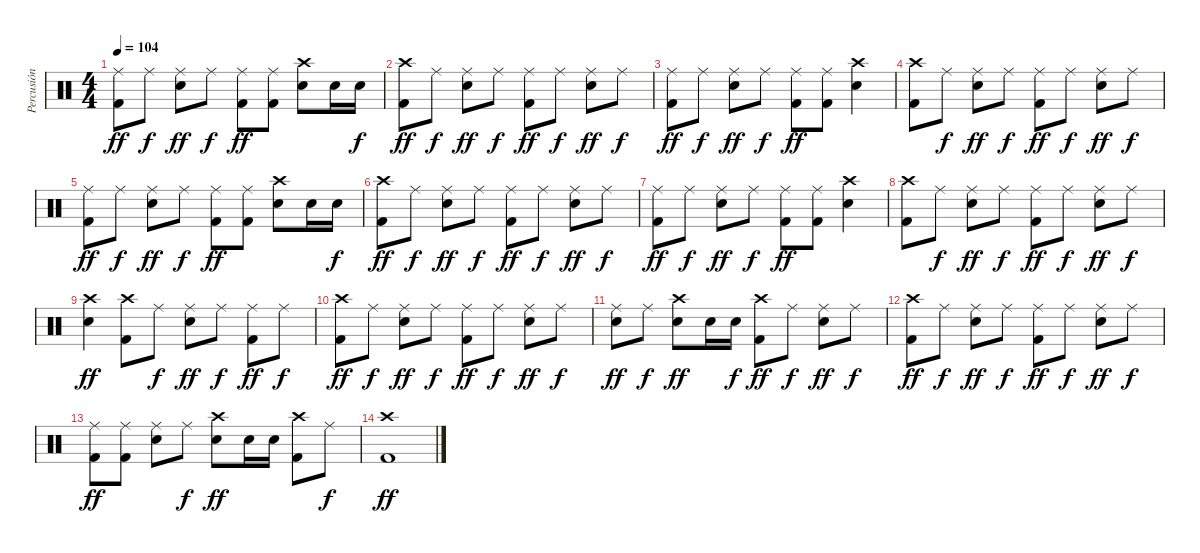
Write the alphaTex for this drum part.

\track ("Percusión" "Percusión") {instrument percussion}
\staff {score}
\articulation defaults
\ts (4 4)
\tempo 104
\clef neutral
\ks c
("Ride (middle)" "Kick (hit) 2").8{dy ff} "Ride (middle)".8{dy f} ("Ride (middle)" "Snare (hit) 2").8{dy ff} "Ride (middle)".8{dy f} ("Ride (middle)" "Kick (hit) 2").8{dy ff} ("Ride (middle)" "Kick (hit) 2").8 ("Crash high (hit)" "Snare (hit) 2").8 "Snare (hit) 2".16 "Snare (hit) 2".16{dy f} |
("Crash high (hit)" "Kick (hit) 2").8{dy ff} "Ride (middle)".8{dy f} ("Ride (middle)" "Snare (hit) 2").8{dy ff} "Ride (middle)".8{dy f} ("Ride (middle)" "Kick (hit) 2").8{dy ff} "Ride (middle)".8{dy f} ("Ride (middle)" "Snare (hit) 2").8{dy ff} "Ride (middle)".8{dy f} |
("Ride (middle)" "Kick (hit) 2").8{dy ff} "Ride (middle)".8{dy f} ("Ride (middle)" "Snare (hit) 2").8{dy ff} "Ride (middle)".8{dy f} ("Ride (middle)" "Kick (hit) 2").8{dy ff} ("Ride (middle)" "Kick (hit) 2").8 ("Crash high (hit)" "Snare (hit) 2").4 |
("Crash high (hit)" "Kick (hit) 2").8 "Ride (middle)".8{dy f} ("Ride (middle)" "Snare (hit) 2").8{dy ff} "Ride (middle)".8{dy f} ("Ride (middle)" "Kick (hit) 2").8{dy ff} "Ride (middle)".8{dy f} ("Ride (middle)" "Snare (hit) 2").8{dy ff} "Ride (middle)".8{dy f} |
("Ride (middle)" "Kick (hit) 2").8{dy ff} "Ride (middle)".8{dy f} ("Ride (middle)" "Snare (hit) 2").8{dy ff} "Ride (middle)".8{dy f} ("Ride (middle)" "Kick (hit) 2").8{dy ff} ("Ride (middle)" "Kick (hit) 2").8 ("Crash high (hit)" "Snare (hit) 2").8 "Snare (hit) 2".16 "Snare (hit) 2".16{dy f} |
("Crash high (hit)" "Kick (hit) 2").8{dy ff} "Ride (middle)".8{dy f} ("Ride (middle)" "Snare (hit) 2").8{dy ff} "Ride (middle)".8{dy f} ("Ride (middle)" "Kick (hit) 2").8{dy ff} "Ride (middle)".8{dy f} ("Ride (middle)" "Snare (hit) 2").8{dy ff} "Ride (middle)".8{dy f} |
("Ride (middle)" "Kick (hit) 2").8{dy ff} "Ride (middle)".8{dy f} ("Ride (middle)" "Snare (hit) 2").8{dy ff} "Ride (middle)".8{dy f} ("Ride (middle)" "Kick (hit) 2").8{dy ff} ("Ride (middle)" "Kick (hit) 2").8 ("Crash high (hit)" "Snare (hit) 2").4 |
("Crash high (hit)" "Kick (hit) 2").8 "Ride (middle)".8{dy f} ("Ride (middle)" "Snare (hit) 2").8{dy ff} "Ride (middle)".8{dy f} ("Ride (middle)" "Kick (hit) 2").8{dy ff} "Ride (middle)".8{dy f} ("Ride (middle)" "Snare (hit) 2").8{dy ff} "Ride (middle)".8{dy f} |
("Crash high (hit)" "Snare (hit) 2").4{dy ff} ("Crash high (hit)" "Kick (hit) 2").8 "Ride (middle)".8{dy f} ("Ride (middle)" "Snare (hit) 2").8{dy ff} "Ride (middle)".8{dy f} ("Ride (middle)" "Kick (hit) 2").8{dy ff} "Ride (middle)".8{dy f} |
("Crash high (hit)" "Kick (hit) 2").8{dy ff} "Ride (middle)".8{dy f} ("Ride (middle)" "Snare (hit) 2").8{dy ff} "Ride (middle)".8{dy f} ("Ride (middle)" "Kick (hit) 2").8{dy ff} "Ride (middle)".8{dy f} ("Ride (middle)" "Snare (hit) 2").8{dy ff} "Ride (middle)".8{dy f} |
("Ride (middle)" "Snare (hit) 2").8{dy ff} "Ride (middle)".8{dy f} ("Crash high (hit)" "Snare (hit) 2").8{dy ff} "Snare (hit) 2".16 "Snare (hit) 2".16{dy f} ("Crash high (hit)" "Kick (hit) 2").8{dy ff} "Ride (middle)".8{dy f} ("Ride (middle)" "Snare (hit) 2").8{dy ff} "Ride (middle)".8{dy f} |
("Crash high (hit)" "Kick (hit) 2").8{dy ff} "Ride (middle)".8{dy f} ("Ride (middle)" "Snare (hit) 2").8{dy ff} "Ride (middle)".8{dy f} ("Ride (middle)" "Kick (hit) 2").8{dy ff} "Ride (middle)".8{dy f} ("Ride (middle)" "Snare (hit) 2").8{dy ff} "Ride (middle)".8{dy f} |
("Ride (middle)" "Kick (hit) 2").8{dy ff} ("Ride (middle)" "Kick (hit) 2").8 ("Ride (middle)" "Snare (hit) 2").8 "Ride (middle)".8{dy f} ("Crash high (hit)" "Snare (hit) 2").8{dy ff} "Snare (hit) 2".16 "Snare (hit) 2".16 ("Crash high (hit)" "Kick (hit) 2").8 "Ride (middle)".8{dy f} |
("Crash high (hit)" "Kick (hit) 2").1{dy ff}
